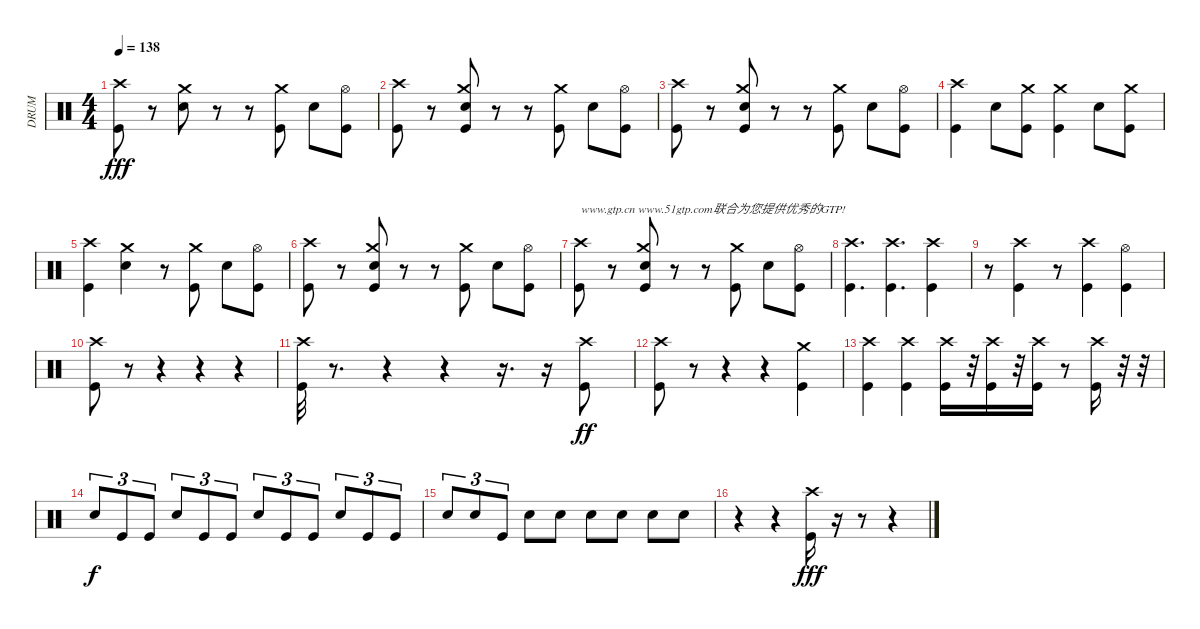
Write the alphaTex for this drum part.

\track ("DRUM" "DRUM") {instrument percussion}
\staff {score}
\articulation defaults
\ts (4 4)
\tempo 138
\clef neutral
\ks c
("Crash high (hit)" "Kick (hit)").8{dy fff} r.8 ("Crash medium (hit)" "Snare (hit) 2").8 r.8 r.8 ("Crash medium (hit)" "Kick (hit)").8 "Snare (hit) 2".8 ("Hi-Hat (open)" "Kick (hit)").8 |
("Crash high (hit)" "Kick (hit)").8 r.8 ("Crash medium (hit)" "Kick (hit)" "Snare (hit) 2").8 r.8 r.8 ("Crash medium (hit)" "Kick (hit)").8 "Snare (hit) 2".8 ("Hi-Hat (open)" "Kick (hit)").8 |
("Crash high (hit)" "Kick (hit)").8 r.8 ("Crash medium (hit)" "Kick (hit)" "Snare (hit) 2").8 r.8 r.8 ("Crash medium (hit)" "Kick (hit)").8 "Snare (hit) 2".8 ("Hi-Hat (open)" "Kick (hit)").8 |
("Crash high (hit)" "Kick (hit)").4 "Snare (hit) 2".8 ("Kick (hit)" "Crash medium (hit)").8 ("Kick (hit)" "Crash medium (hit)").4 "Snare (hit) 2".8 ("Crash medium (hit)" "Kick (hit)").8 |
("Crash high (hit)" "Kick (hit)").4 ("Crash medium (hit)" "Snare (hit) 2").4 r.8 ("Crash medium (hit)" "Kick (hit)").8 "Snare (hit) 2".8 ("Hi-Hat (open)" "Kick (hit)").8 |
("Crash high (hit)" "Kick (hit)").8 r.8 ("Crash medium (hit)" "Kick (hit)" "Snare (hit) 2").8 r.8 r.8 ("Crash medium (hit)" "Kick (hit)").8 "Snare (hit) 2".8 ("Hi-Hat (open)" "Kick (hit)").8 |
("Crash high (hit)" "Kick (hit)").8{txt "www.gtp.cn www.51gtp.com联合为您提供优秀的GTP!"} r.8 ("Crash medium (hit)" "Kick (hit)" "Snare (hit) 2").8 r.8 r.8 ("Crash medium (hit)" "Kick (hit)").8 "Snare (hit) 2".8 ("Hi-Hat (open)" "Kick (hit)").8 |
("Crash high (hit)" "Kick (hit)").4{d} ("Crash high (hit)" "Kick (hit)").4{d} ("Crash high (hit)" "Kick (hit)").4 |
r.8 ("Crash high (hit)" "Kick (hit)").4 r.8 ("Crash high (hit)" "Kick (hit)").4 ("Hi-Hat (open)" "Kick (hit)").4 |
("Crash high (hit)" "Kick (hit)").8 r.8 r.4 r.4 r.4 |
("Crash high (hit)" "Kick (hit)").32 r.8{d} r.4 r.4 r.16{d} r.16 ("Crash high (hit)" "Kick (hit)").8{dy ff} |
("Crash high (hit)" "Kick (hit)").8 r.8 r.4 r.4 ("Crash medium (hit)" "Kick (hit)").4 |
("Crash high (hit)" "Kick (hit)").4 ("Crash high (hit)" "Kick (hit)").4 ("Crash high (hit)" "Kick (hit)").16 r.32 ("Crash high (hit)" "Kick (hit)").16 r.32 ("Crash high (hit)" "Kick (hit)").16 r.8 ("Crash high (hit)" "Kick (hit)").16 r.32 r.32 |
"Snare (hit) 2".8{tu (3 2) dy f} "Kick (hit)".8{tu (3 2)} "Kick (hit)".8{tu (3 2)} "Snare (hit) 2".8{tu (3 2)} "Kick (hit)".8{tu (3 2)} "Kick (hit)".8{tu (3 2)} "Snare (hit) 2".8{tu (3 2)} "Kick (hit)".8{tu (3 2)} "Kick (hit)".8{tu (3 2)} "Snare (hit) 2".8{tu (3 2)} "Kick (hit)".8{tu (3 2)} "Kick (hit)".8{tu (3 2)} |
"Snare (hit) 2".8{tu (3 2)} "Snare (hit) 2".8{tu (3 2)} "Kick (hit)".8{tu (3 2)} "Snare (hit) 2".8 "Snare (hit) 2".8 "Snare (hit) 2".8 "Snare (hit) 2".8 "Snare (hit) 2".8 "Snare (hit) 2".8 |
r.4 r.4 ("Crash high (hit)" "Kick (hit)").16{dy fff} r.16 r.8 r.4
